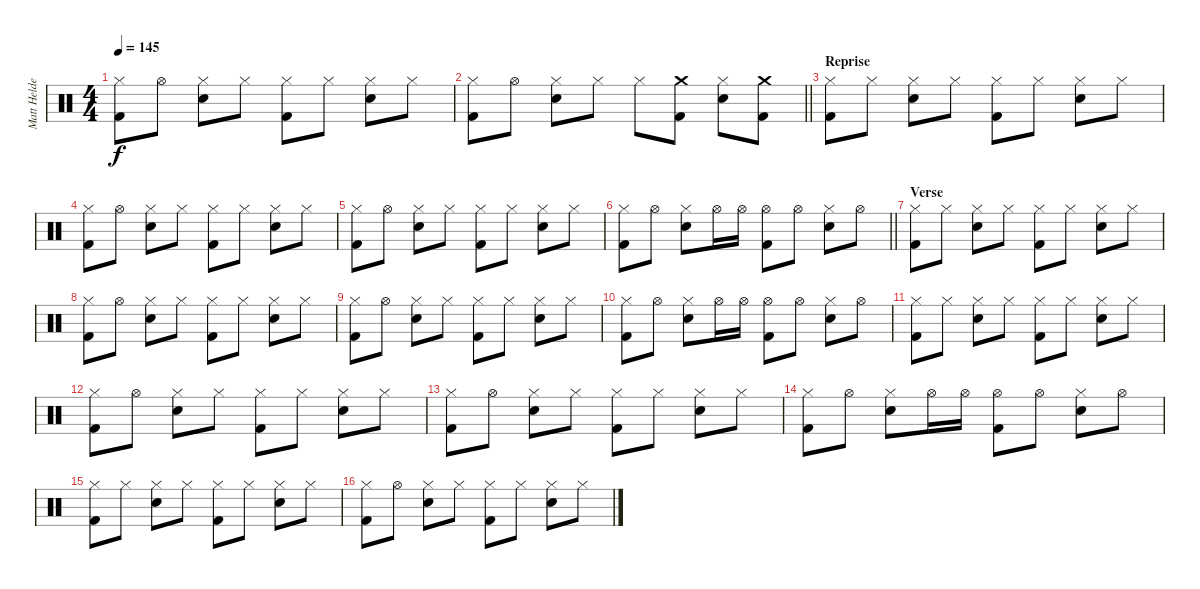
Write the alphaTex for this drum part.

\track ("Matt Helders" "Matt Helde") {instrument percussion}
\staff {score}
\articulation defaults
\ts (4 4)
\tempo 145
\clef neutral
\ks c
("Kick (hit) 2" "Hi-Hat (closed)").8{dy f} "Hi-Hat (open)".8 ("Electric Snare (hit)" "Hi-Hat (closed)").8 "Hi-Hat (closed)".8 ("Kick (hit) 2" "Hi-Hat (closed)").8 "Hi-Hat (closed)".8 ("Electric Snare (hit)" "Hi-Hat (closed)").8 "Hi-Hat (closed)".8 |
\barLineRight lightlight
("Kick (hit) 2" "Hi-Hat (closed)").8 "Hi-Hat (open)".8 ("Electric Snare (hit)" "Hi-Hat (closed)").8 "Hi-Hat (closed)".8 "Hi-Hat (closed)".8 ("Kick (hit) 2" "Crash medium (hit)").8 ("Electric Snare (hit)" "Hi-Hat (closed)").8 ("Kick (hit) 2" "Crash medium (hit)").8 |
\section ("" "Reprise")
("Kick (hit) 2" "Hi-Hat (closed)").8 "Hi-Hat (closed)".8 ("Electric Snare (hit)" "Hi-Hat (closed)").8 "Hi-Hat (closed)".8 ("Kick (hit) 2" "Hi-Hat (closed)").8 "Hi-Hat (closed)".8 ("Electric Snare (hit)" "Hi-Hat (closed)").8 "Hi-Hat (closed)".8 |
("Kick (hit) 2" "Hi-Hat (closed)").8 "Hi-Hat (open)".8 ("Electric Snare (hit)" "Hi-Hat (closed)").8 "Hi-Hat (closed)".8 ("Kick (hit) 2" "Hi-Hat (closed)").8 "Hi-Hat (closed)".8 ("Electric Snare (hit)" "Hi-Hat (closed)").8 "Hi-Hat (closed)".8 |
("Kick (hit) 2" "Hi-Hat (closed)").8 "Hi-Hat (open)".8 ("Electric Snare (hit)" "Hi-Hat (closed)").8 "Hi-Hat (closed)".8 ("Kick (hit) 2" "Hi-Hat (closed)").8 "Hi-Hat (closed)".8 ("Electric Snare (hit)" "Hi-Hat (closed)").8 "Hi-Hat (closed)".8 |
\barLineRight lightlight
("Kick (hit) 2" "Hi-Hat (closed)").8 "Hi-Hat (open)".8 ("Electric Snare (hit)" "Hi-Hat (closed)").8 "Hi-Hat (open)".16 "Hi-Hat (open)".16 ("Kick (hit) 2" "Hi-Hat (open)").8 "Hi-Hat (open)".8 ("Electric Snare (hit)" "Hi-Hat (closed)").8 "Hi-Hat (open)".8 |
\section ("" "Verse")
("Kick (hit) 2" "Hi-Hat (closed)").8 "Hi-Hat (closed)".8 ("Electric Snare (hit)" "Hi-Hat (closed)").8 "Hi-Hat (closed)".8 ("Kick (hit) 2" "Hi-Hat (closed)").8 "Hi-Hat (closed)".8 ("Electric Snare (hit)" "Hi-Hat (closed)").8 "Hi-Hat (closed)".8 |
("Kick (hit) 2" "Hi-Hat (closed)").8 "Hi-Hat (open)".8 ("Electric Snare (hit)" "Hi-Hat (closed)").8 "Hi-Hat (closed)".8 ("Kick (hit) 2" "Hi-Hat (closed)").8 "Hi-Hat (closed)".8 ("Electric Snare (hit)" "Hi-Hat (closed)").8 "Hi-Hat (closed)".8 |
("Kick (hit) 2" "Hi-Hat (closed)").8 "Hi-Hat (open)".8 ("Electric Snare (hit)" "Hi-Hat (closed)").8 "Hi-Hat (closed)".8 ("Kick (hit) 2" "Hi-Hat (closed)").8 "Hi-Hat (closed)".8 ("Electric Snare (hit)" "Hi-Hat (closed)").8 "Hi-Hat (closed)".8 |
("Kick (hit) 2" "Hi-Hat (closed)").8 "Hi-Hat (open)".8 ("Electric Snare (hit)" "Hi-Hat (closed)").8 "Hi-Hat (open)".16 "Hi-Hat (open)".16 ("Kick (hit) 2" "Hi-Hat (open)").8 "Hi-Hat (open)".8 ("Electric Snare (hit)" "Hi-Hat (closed)").8 "Hi-Hat (open)".8 |
("Kick (hit) 2" "Hi-Hat (closed)").8 "Hi-Hat (closed)".8 ("Electric Snare (hit)" "Hi-Hat (closed)").8 "Hi-Hat (closed)".8 ("Kick (hit) 2" "Hi-Hat (closed)").8 "Hi-Hat (closed)".8 ("Electric Snare (hit)" "Hi-Hat (closed)").8 "Hi-Hat (closed)".8 |
("Kick (hit) 2" "Hi-Hat (closed)").8 "Hi-Hat (open)".8 ("Electric Snare (hit)" "Hi-Hat (closed)").8 "Hi-Hat (closed)".8 ("Kick (hit) 2" "Hi-Hat (closed)").8 "Hi-Hat (closed)".8 ("Electric Snare (hit)" "Hi-Hat (closed)").8 "Hi-Hat (closed)".8 |
("Kick (hit) 2" "Hi-Hat (closed)").8 "Hi-Hat (open)".8 ("Electric Snare (hit)" "Hi-Hat (closed)").8 "Hi-Hat (closed)".8 ("Kick (hit) 2" "Hi-Hat (closed)").8 "Hi-Hat (closed)".8 ("Electric Snare (hit)" "Hi-Hat (closed)").8 "Hi-Hat (closed)".8 |
("Kick (hit) 2" "Hi-Hat (closed)").8 "Hi-Hat (open)".8 ("Electric Snare (hit)" "Hi-Hat (closed)").8 "Hi-Hat (open)".16 "Hi-Hat (open)".16 ("Kick (hit) 2" "Hi-Hat (open)").8 "Hi-Hat (open)".8 ("Electric Snare (hit)" "Hi-Hat (closed)").8 "Hi-Hat (open)".8 |
("Kick (hit) 2" "Hi-Hat (closed)").8 "Hi-Hat (closed)".8 ("Electric Snare (hit)" "Hi-Hat (closed)").8 "Hi-Hat (closed)".8 ("Kick (hit) 2" "Hi-Hat (closed)").8 "Hi-Hat (closed)".8 ("Electric Snare (hit)" "Hi-Hat (closed)").8 "Hi-Hat (closed)".8 |
("Kick (hit) 2" "Hi-Hat (closed)").8 "Hi-Hat (open)".8 ("Electric Snare (hit)" "Hi-Hat (closed)").8 "Hi-Hat (closed)".8 ("Kick (hit) 2" "Hi-Hat (closed)").8 "Hi-Hat (closed)".8 ("Electric Snare (hit)" "Hi-Hat (closed)").8 "Hi-Hat (closed)".8
